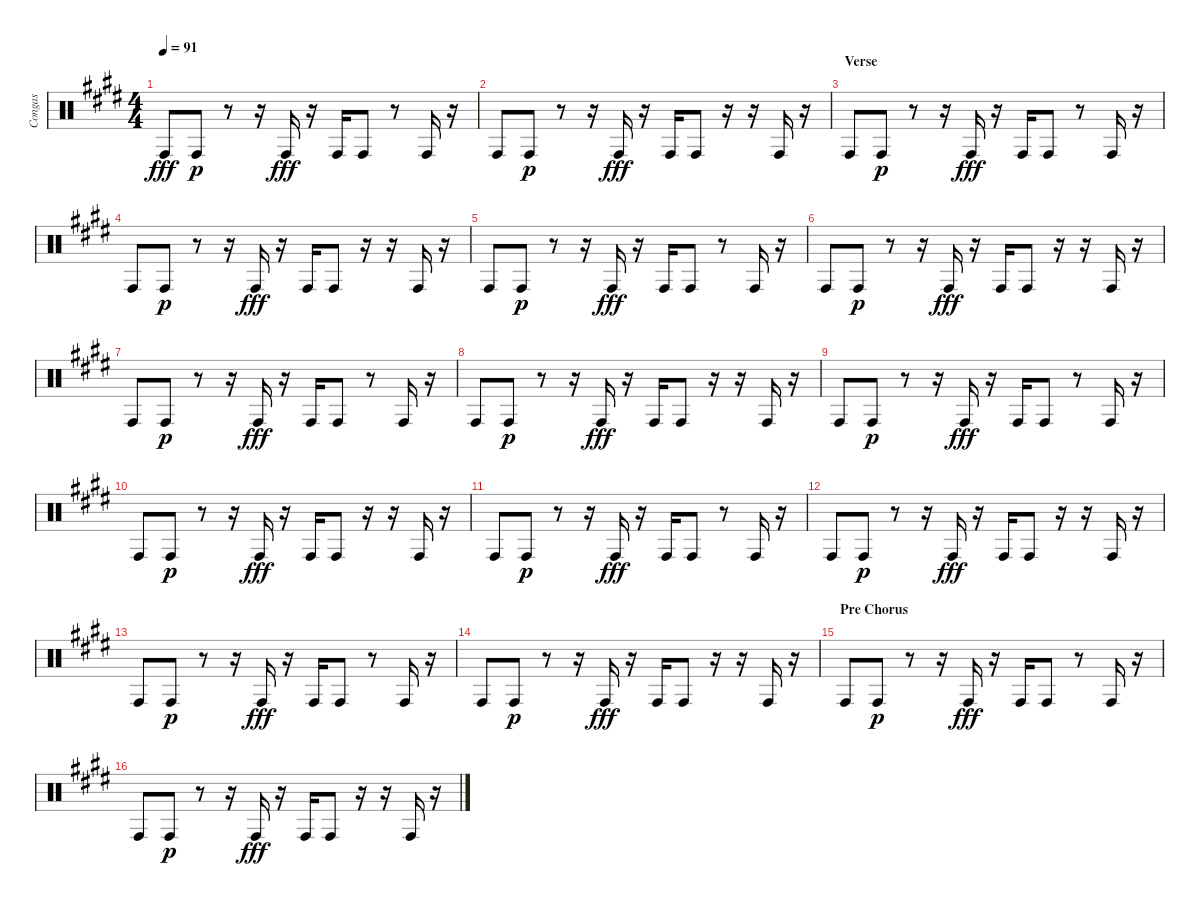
\track ("Congas" "Congas") {instrument percussion}
\staff {score}
\articulation defaults
\ts (4 4)
\tempo 91
\clef neutral
\ks e "Conga high (hit)".8{dy fff} "Conga high (hit)".8{dy p}
r.8 r.16 "Conga high (hit)".16{dy fff} r.16 "Conga high (hit)".16 "Conga high (hit)".8 r.8 "Conga high (hit)".16 r.16 |
"Conga high (hit)".8 "Conga high (hit)".8{dy p} r.8 r.16 "Conga high (hit)".16{dy fff} r.16 "Conga high (hit)".16 "Conga high (hit)".8 r.16 r.16 "Conga high (hit)".16 r.16 |
\section ("" "Verse")
"Conga high (hit)".8 "Conga high (hit)".8{dy p} r.8 r.16 "Conga high (hit)".16{dy fff} r.16 "Conga high (hit)".16 "Conga high (hit)".8 r.8 "Conga high (hit)".16 r.16 |
"Conga high (hit)".8 "Conga high (hit)".8{dy p} r.8 r.16 "Conga high (hit)".16{dy fff} r.16 "Conga high (hit)".16 "Conga high (hit)".8 r.16 r.16 "Conga high (hit)".16 r.16 |
"Conga high (hit)".8 "Conga high (hit)".8{dy p} r.8 r.16 "Conga high (hit)".16{dy fff} r.16 "Conga high (hit)".16 "Conga high (hit)".8 r.8 "Conga high (hit)".16 r.16 |
"Conga high (hit)".8 "Conga high (hit)".8{dy p} r.8 r.16 "Conga high (hit)".16{dy fff} r.16 "Conga high (hit)".16 "Conga high (hit)".8 r.16 r.16 "Conga high (hit)".16 r.16 |
"Conga high (hit)".8 "Conga high (hit)".8{dy p} r.8 r.16 "Conga high (hit)".16{dy fff} r.16 "Conga high (hit)".16 "Conga high (hit)".8 r.8 "Conga high (hit)".16 r.16 |
"Conga high (hit)".8 "Conga high (hit)".8{dy p} r.8 r.16 "Conga high (hit)".16{dy fff} r.16 "Conga high (hit)".16 "Conga high (hit)".8 r.16 r.16 "Conga high (hit)".16 r.16 |
"Conga high (hit)".8 "Conga high (hit)".8{dy p} r.8 r.16 "Conga high (hit)".16{dy fff} r.16 "Conga high (hit)".16 "Conga high (hit)".8 r.8 "Conga high (hit)".16 r.16 |
"Conga high (hit)".8 "Conga high (hit)".8{dy p} r.8 r.16 "Conga high (hit)".16{dy fff} r.16 "Conga high (hit)".16 "Conga high (hit)".8 r.16 r.16 "Conga high (hit)".16 r.16 |
"Conga high (hit)".8 "Conga high (hit)".8{dy p} r.8 r.16 "Conga high (hit)".16{dy fff} r.16 "Conga high (hit)".16 "Conga high (hit)".8 r.8 "Conga high (hit)".16 r.16 |
"Conga high (hit)".8 "Conga high (hit)".8{dy p} r.8 r.16 "Conga high (hit)".16{dy fff} r.16 "Conga high (hit)".16 "Conga high (hit)".8 r.16 r.16 "Conga high (hit)".16 r.16 |
"Conga high (hit)".8 "Conga high (hit)".8{dy p} r.8 r.16 "Conga high (hit)".16{dy fff} r.16 "Conga high (hit)".16 "Conga high (hit)".8 r.8 "Conga high (hit)".16 r.16 |
"Conga high (hit)".8 "Conga high (hit)".8{dy p} r.8 r.16 "Conga high (hit)".16{dy fff} r.16 "Conga high (hit)".16 "Conga high (hit)".8 r.16 r.16 "Conga high (hit)".16 r.16 |
\section ("" "Pre Chorus")
"Conga high (hit)".8 "Conga high (hit)".8{dy p} r.8 r.16 "Conga high (hit)".16{dy fff} r.16 "Conga high (hit)".16 "Conga high (hit)".8 r.8 "Conga high (hit)".16 r.16 |
"Conga high (hit)".8 "Conga high (hit)".8{dy p} r.8 r.16 "Conga high (hit)".16{dy fff} r.16 "Conga high (hit)".16 "Conga high (hit)".8 r.16 r.16 "Conga high (hit)".16 r.16
